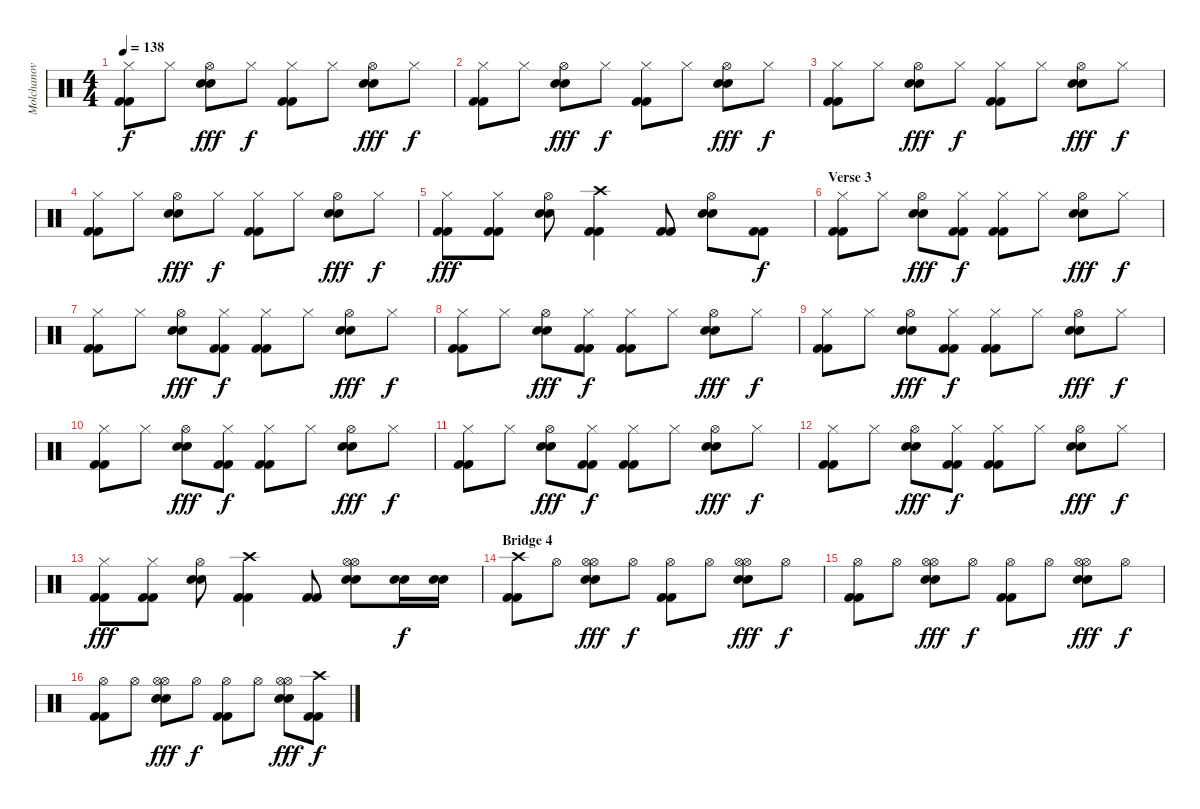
\track ("Molchanov" "Molchanov") {instrument percussion}
\staff {score}
\articulation defaults
\ts (4 4)
\tempo 138
\clef neutral
\ks c
("Hi-Hat (closed)" "Kick (hit) 2" "Kick (hit) 2").8{dy f} "Hi-Hat (closed)".8 ("Hi-Hat (open)" "Electric Snare (hit)" "Electric Snare (hit)").8{dy fff} "Hi-Hat (closed)".8{dy f} ("Hi-Hat (closed)" "Kick (hit) 2" "Kick (hit) 2").8 "Hi-Hat (closed)".8 ("Hi-Hat (open)" "Electric Snare (hit)" "Electric Snare (hit)").8{dy fff} "Hi-Hat (closed)".8{dy f} |
("Hi-Hat (closed)" "Kick (hit) 2" "Kick (hit) 2").8 "Hi-Hat (closed)".8 ("Hi-Hat (open)" "Electric Snare (hit)" "Electric Snare (hit)").8{dy fff} "Hi-Hat (closed)".8{dy f} ("Hi-Hat (closed)" "Kick (hit) 2" "Kick (hit) 2").8 "Hi-Hat (closed)".8 ("Hi-Hat (open)" "Electric Snare (hit)" "Electric Snare (hit)").8{dy fff} "Hi-Hat (closed)".8{dy f} |
("Hi-Hat (closed)" "Kick (hit) 2" "Kick (hit) 2").8 "Hi-Hat (closed)".8 ("Hi-Hat (open)" "Electric Snare (hit)" "Electric Snare (hit)").8{dy fff} "Hi-Hat (closed)".8{dy f} ("Hi-Hat (closed)" "Kick (hit) 2" "Kick (hit) 2").8 "Hi-Hat (closed)".8 ("Hi-Hat (open)" "Electric Snare (hit)" "Electric Snare (hit)").8{dy fff} "Hi-Hat (closed)".8{dy f} |
("Hi-Hat (closed)" "Kick (hit) 2" "Kick (hit) 2").8 "Hi-Hat (closed)".8 ("Hi-Hat (open)" "Electric Snare (hit)" "Electric Snare (hit)").8{dy fff} "Hi-Hat (closed)".8{dy f} ("Hi-Hat (closed)" "Kick (hit) 2" "Kick (hit) 2").8 "Hi-Hat (closed)".8 ("Hi-Hat (open)" "Electric Snare (hit)" "Electric Snare (hit)").8{dy fff} "Hi-Hat (closed)".8{dy f} |
("Hi-Hat (closed)" "Kick (hit) 2" "Kick (hit) 2").8{dy fff} ("Hi-Hat (closed)" "Kick (hit) 2" "Kick (hit) 2").8 ("Hi-Hat (open)" "Electric Snare (hit)" "Electric Snare (hit)").8 ("Crash high (hit)" "Kick (hit) 2" "Kick (hit) 2").4 ("Kick (hit) 2" "Kick (hit) 2").8 ("Hi-Hat (open)" "Electric Snare (hit)" "Electric Snare (hit)").8 ("Kick (hit) 2" "Kick (hit) 2").8{dy f} |
\section ("" "Verse 3")
("Hi-Hat (closed)" "Kick (hit) 2" "Kick (hit) 2").8 "Hi-Hat (closed)".8 ("Hi-Hat (open)" "Electric Snare (hit)" "Electric Snare (hit)").8{dy fff} ("Hi-Hat (closed)" "Kick (hit) 2" "Kick (hit) 2").8{dy f} ("Hi-Hat (closed)" "Kick (hit) 2" "Kick (hit) 2").8 "Hi-Hat (closed)".8 ("Hi-Hat (open)" "Electric Snare (hit)" "Electric Snare (hit)").8{dy fff} "Hi-Hat (closed)".8{dy f} |
("Hi-Hat (closed)" "Kick (hit) 2" "Kick (hit) 2").8 "Hi-Hat (closed)".8 ("Hi-Hat (open)" "Electric Snare (hit)" "Electric Snare (hit)").8{dy fff} ("Hi-Hat (closed)" "Kick (hit) 2" "Kick (hit) 2").8{dy f} ("Hi-Hat (closed)" "Kick (hit) 2" "Kick (hit) 2").8 "Hi-Hat (closed)".8 ("Hi-Hat (open)" "Electric Snare (hit)" "Electric Snare (hit)").8{dy fff} "Hi-Hat (closed)".8{dy f} |
("Hi-Hat (closed)" "Kick (hit) 2" "Kick (hit) 2").8 "Hi-Hat (closed)".8 ("Hi-Hat (open)" "Electric Snare (hit)" "Electric Snare (hit)").8{dy fff} ("Hi-Hat (closed)" "Kick (hit) 2" "Kick (hit) 2").8{dy f} ("Hi-Hat (closed)" "Kick (hit) 2" "Kick (hit) 2").8 "Hi-Hat (closed)".8 ("Hi-Hat (open)" "Electric Snare (hit)" "Electric Snare (hit)").8{dy fff} "Hi-Hat (closed)".8{dy f} |
("Hi-Hat (closed)" "Kick (hit) 2" "Kick (hit) 2").8 "Hi-Hat (closed)".8 ("Hi-Hat (open)" "Electric Snare (hit)" "Electric Snare (hit)").8{dy fff} ("Hi-Hat (closed)" "Kick (hit) 2" "Kick (hit) 2").8{dy f} ("Hi-Hat (closed)" "Kick (hit) 2" "Kick (hit) 2").8 "Hi-Hat (closed)".8 ("Hi-Hat (open)" "Electric Snare (hit)" "Electric Snare (hit)").8{dy fff} "Hi-Hat (closed)".8{dy f} |
("Hi-Hat (closed)" "Kick (hit) 2" "Kick (hit) 2").8 "Hi-Hat (closed)".8 ("Hi-Hat (open)" "Electric Snare (hit)" "Electric Snare (hit)").8{dy fff} ("Hi-Hat (closed)" "Kick (hit) 2" "Kick (hit) 2").8{dy f} ("Hi-Hat (closed)" "Kick (hit) 2" "Kick (hit) 2").8 "Hi-Hat (closed)".8 ("Hi-Hat (open)" "Electric Snare (hit)" "Electric Snare (hit)").8{dy fff} "Hi-Hat (closed)".8{dy f} |
("Hi-Hat (closed)" "Kick (hit) 2" "Kick (hit) 2").8 "Hi-Hat (closed)".8 ("Hi-Hat (open)" "Electric Snare (hit)" "Electric Snare (hit)").8{dy fff} ("Hi-Hat (closed)" "Kick (hit) 2" "Kick (hit) 2").8{dy f} ("Hi-Hat (closed)" "Kick (hit) 2" "Kick (hit) 2").8 "Hi-Hat (closed)".8 ("Hi-Hat (open)" "Electric Snare (hit)" "Electric Snare (hit)").8{dy fff} "Hi-Hat (closed)".8{dy f} |
("Hi-Hat (closed)" "Kick (hit) 2" "Kick (hit) 2").8 "Hi-Hat (closed)".8 ("Hi-Hat (open)" "Electric Snare (hit)" "Electric Snare (hit)").8{dy fff} ("Hi-Hat (closed)" "Kick (hit) 2" "Kick (hit) 2").8{dy f} ("Hi-Hat (closed)" "Kick (hit) 2" "Kick (hit) 2").8 "Hi-Hat (closed)".8 ("Hi-Hat (open)" "Electric Snare (hit)" "Electric Snare (hit)").8{dy fff} "Hi-Hat (closed)".8{dy f} |
("Hi-Hat (closed)" "Kick (hit) 2" "Kick (hit) 2").8{dy fff} ("Hi-Hat (closed)" "Kick (hit) 2" "Kick (hit) 2").8 ("Hi-Hat (open)" "Electric Snare (hit)" "Electric Snare (hit)").8 ("Crash high (hit)" "Kick (hit) 2" "Kick (hit) 2").4 ("Kick (hit) 2" "Kick (hit) 2").8 ("Hi-Hat (open)" "Hi-Hat (open)" "Electric Snare (hit)" "Electric Snare (hit)").8 ("Electric Snare (hit)" "Electric Snare (hit)").16{dy f} ("Electric Snare (hit)" "Electric Snare (hit)").16 |
\section ("" "Bridge 4")
("Crash high (hit)" "Kick (hit) 2" "Kick (hit) 2").8 "Hi-Hat (open)".8 ("Hi-Hat (open)" "Hi-Hat (open)" "Electric Snare (hit)" "Electric Snare (hit)").8{dy fff} "Hi-Hat (open)".8{dy f} ("Hi-Hat (open)" "Kick (hit) 2" "Kick (hit) 2").8 "Hi-Hat (open)".8 ("Hi-Hat (open)" "Hi-Hat (open)" "Electric Snare (hit)" "Electric Snare (hit)").8{dy fff} "Hi-Hat (open)".8{dy f} |
("Hi-Hat (open)" "Kick (hit) 2" "Kick (hit) 2").8 "Hi-Hat (open)".8 ("Hi-Hat (open)" "Hi-Hat (open)" "Electric Snare (hit)" "Electric Snare (hit)").8{dy fff} "Hi-Hat (open)".8{dy f} ("Hi-Hat (open)" "Kick (hit) 2" "Kick (hit) 2").8 "Hi-Hat (open)".8 ("Hi-Hat (open)" "Hi-Hat (open)" "Electric Snare (hit)" "Electric Snare (hit)").8{dy fff} "Hi-Hat (open)".8{dy f} |
("Hi-Hat (open)" "Kick (hit) 2" "Kick (hit) 2").8 "Hi-Hat (open)".8 ("Hi-Hat (open)" "Hi-Hat (open)" "Electric Snare (hit)" "Electric Snare (hit)").8{dy fff} "Hi-Hat (open)".8{dy f} ("Hi-Hat (open)" "Kick (hit) 2" "Kick (hit) 2").8 "Hi-Hat (open)".8 ("Hi-Hat (open)" "Hi-Hat (open)" "Electric Snare (hit)" "Electric Snare (hit)").8{dy fff} ("Crash high (hit)" "Kick (hit) 2" "Kick (hit) 2").8{dy f}
